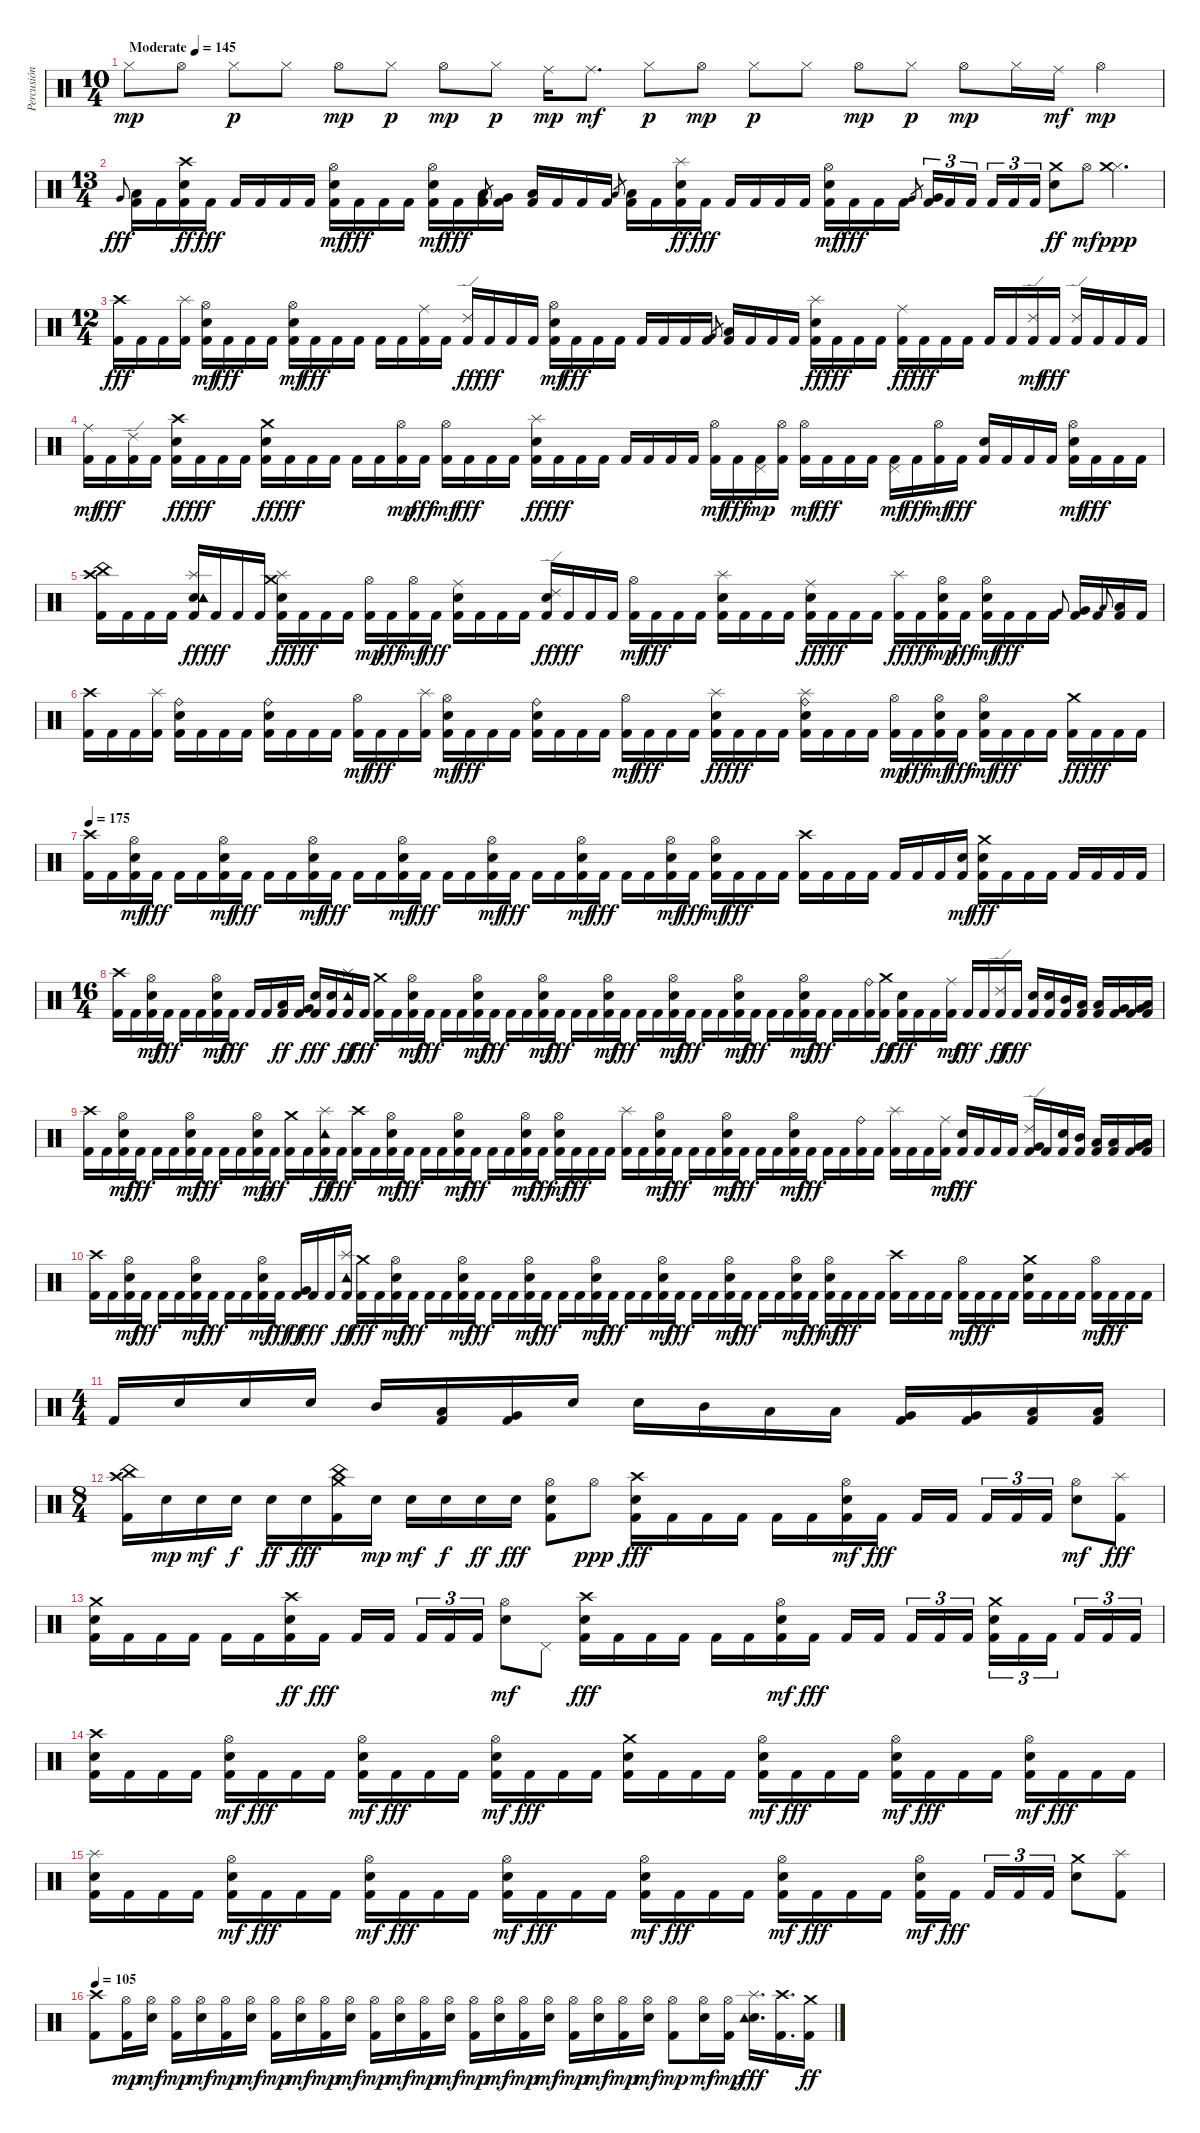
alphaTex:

\track ("Percusión" "Percusión") {instrument percussion}
\staff {score}
\articulation defaults
\ts (10 4)
\tempo (145 "Moderate")
\clef neutral
\ks c "Hi-Hat (closed)".8{dy mp} "Hi-Hat (open)".8 "Hi-Hat (closed)".8{dy p} "Hi-Hat (closed)".8 "Hi-Hat (open)".8{dy mp} "Hi-Hat (closed)".8{dy p} "Hi-Hat (open)".8{dy mp} "Hi-Hat (closed)".8{dy p} "Ride (middle)".16{dy mp} "Ride (middle)".8{d dy mf} "Hi-Hat (closed)".8{dy p} "Hi-Hat (open)".8{dy mp} "Hi-Hat (closed)".8{dy p} "Hi-Hat (closed)".8 "Hi-Hat (open)".8{dy mp} "Hi-Hat (closed)".8{dy p} "Hi-Hat (open)".8{dy mp} "Hi-Hat (closed)".16 "Ride (middle)".16{dy mf} "Hi-Hat (open)".4{dy mp}
|
\ts (13 4)
"Very Low Tom (hit)".8{gr onbeat dy fff} ("Kick (hit) 2" "Low Floor Tom (hit)").16 "Kick (hit) 2".16 ("Kick (hit) 2" "Electric Snare (hit)" "Crash high (hit)").16{dy ff} "Kick (hit) 2".16{dy fff} "Kick (hit) 2".16 "Kick (hit) 2".16 "Kick (hit) 2".16 "Kick (hit) 2".16 ("Kick (hit) 2" "Electric Snare (hit)" "Hi-Hat (open)").16{dy mf} "Kick (hit) 2".16{dy fff} "Kick (hit) 2".16 "Kick (hit) 2".16 ("Kick (hit) 2" "Electric Snare (hit)" "Hi-Hat (open)").16{dy mf} "Kick (hit) 2".16{dy fff} ("Kick (hit) 2" "Low Tom (hit)").16 "Very Low Tom (hit)".8{gr} ("Kick (hit) 2" "Very Low Tom (hit)").16 ("Kick (hit) 2" "Low Floor Tom (hit)").16 "Kick (hit) 2".16 "Kick (hit) 2".16 "Kick (hit) 2".16 "Low Floor Tom (hit)".8{gr} ("Kick (hit) 2" "Low Floor Tom (hit)").16 "Kick (hit) 2".16 ("Kick (hit) 2" "Electric Snare (hit)" "Splash (hit)").16{dy ff} "Kick (hit) 2".16{dy fff} "Kick (hit) 2".16 "Kick (hit) 2".16 "Kick (hit) 2".16 "Kick (hit) 2".16 ("Kick (hit) 2" "Electric Snare (hit)" "Hi-Hat (open)").16{dy mf} "Kick (hit) 2".16{dy fff} "Kick (hit) 2".16 "Kick (hit) 2".16 "Very Low Tom (hit)".8{gr} ("Kick (hit) 2" "Very Low Tom (hit)").16{tu (3 2)} "Kick (hit) 2".16{tu (3 2)} "Kick (hit) 2".16{tu (3 2) beam splitsecondary} "Kick (hit) 2".16{tu (3 2)} "Kick (hit) 2".16{tu (3 2)} "Kick (hit) 2".16{tu (3 2)} ("Electric Snare (hit)" "Crash medium (hit)").8{dy ff} "Hi-Hat (open)".8{dy mf} ("Hi-Hat (closed)" "Crash medium (hit)").2{d dy ppp} |
\ts (12 4)
("Kick (hit) 2" "Crash high (hit)").16{dy fff} "Kick (hit) 2".16 "Kick (hit) 2".16 ("Kick (hit) 2" "Splash (hit)").16 ("Kick (hit) 2" "Electric Snare (hit)" "Hi-Hat (open)").16{dy mf} "Kick (hit) 2".16{dy fff} "Kick (hit) 2".16 "Kick (hit) 2".16 ("Kick (hit) 2" "Electric Snare (hit)" "Hi-Hat (open)").16{dy mf} "Kick (hit) 2".16{dy fff} "Kick (hit) 2".16 "Kick (hit) 2".16 "Kick (hit) 2".16 "Kick (hit) 2".16 ("Kick (hit) 2" "Ride (middle)").16 "Kick (hit) 2".16 ("Kick (hit) 2" "Ride (edge) 2").16{dy ff} "Kick (hit) 2".16{dy fff} "Kick (hit) 2".16 "Kick (hit) 2".16 ("Kick (hit) 2" "Electric Snare (hit)" "Hi-Hat (open)").16{dy mf} "Kick (hit) 2".16{dy fff} "Kick (hit) 2".16 "Kick (hit) 2".16 "Kick (hit) 2".16 "Kick (hit) 2".16 "Kick (hit) 2".16 "Kick (hit) 2".16 "Very Low Tom (hit)".8{gr} ("Kick (hit) 2" "Low Floor Tom (hit)").16 "Kick (hit) 2".16 "Kick (hit) 2".16 "Kick (hit) 2".16 ("Kick (hit) 2" "Electric Snare (hit)" "Splash (hit)").16{dy ff} "Kick (hit) 2".16{dy fff} "Kick (hit) 2".16 "Kick (hit) 2".16 ("Kick (hit) 2" "Ride (middle)").16{dy ff} "Kick (hit) 2".16{dy fff} "Kick (hit) 2".16 "Kick (hit) 2".16 "Kick (hit) 2".16 "Kick (hit) 2".16 ("Kick (hit) 2" "Ride (edge) 2").16{dy mf} "Kick (hit) 2".16{dy fff} ("Kick (hit) 2" "Ride (edge) 2").16 "Kick (hit) 2".16 "Kick (hit) 2".16 "Kick (hit) 2".16 |
("Kick (hit) 2" "Ride (middle)").16{dy mf} "Kick (hit) 2".16{dy fff} ("Kick (hit) 2" "Ride (edge) 2").16 "Kick (hit) 2".16 ("Kick (hit) 2" "Electric Snare (hit)" "Crash high (hit)").16{dy ff} "Kick (hit) 2".16{dy fff} "Kick (hit) 2".16 "Kick (hit) 2".16 ("Kick (hit) 2" "Electric Snare (hit)" "Crash medium (hit)").16{dy ff} "Kick (hit) 2".16{dy fff} "Kick (hit) 2".16 "Kick (hit) 2".16 "Kick (hit) 2".16 "Kick (hit) 2".16 ("Kick (hit) 2" "Hi-Hat (open)").16{dy mp} "Kick (hit) 2".16{dy fff} ("Kick (hit) 2" "Hi-Hat (open)").16{dy mf} "Kick (hit) 2".16{dy fff} "Kick (hit) 2".16 "Kick (hit) 2".16 ("Kick (hit) 2" "Electric Snare (hit)" "Splash (hit)").16{dy ff} "Kick (hit) 2".16{dy fff} "Kick (hit) 2".16 "Kick (hit) 2".16 "Kick (hit) 2".16 "Kick (hit) 2".16 "Kick (hit) 2".16 "Kick (hit) 2".16 ("Kick (hit) 2" "Hi-Hat (open)").16{dy mf} "Kick (hit) 2".16{dy fff} ("Kick (hit) 2" "Pedal Hi-Hat (hit)").16{dy mp} ("Kick (hit) 2" "Hi-Hat (open)").16 ("Kick (hit) 2" "Hi-Hat (open)").16{dy mf} "Kick (hit) 2".16{dy fff} "Kick (hit) 2".16 "Kick (hit) 2".16 ("Kick (hit) 2" "Pedal Hi-Hat (hit)").16{dy mf} "Kick (hit) 2".16{dy fff} ("Kick (hit) 2" "Hi-Hat (open)").16{dy mf} "Kick (hit) 2".16{dy fff} ("Kick (hit) 2" "Electric Snare (hit)").16 "Kick (hit) 2".16 "Kick (hit) 2".16 "Kick (hit) 2".16 ("Kick (hit) 2" "Electric Snare (hit)" "Hi-Hat (open)").16{dy mf} "Kick (hit) 2".16{dy fff} "Kick (hit) 2".16 "Kick (hit) 2".16 |
("Kick (hit) 2" "Crash high (hit)" "China (hit)").16 "Kick (hit) 2".16 "Kick (hit) 2".16 "Kick (hit) 2".16 ("Kick (hit) 2" "Electric Snare (hit)" "Splash (hit)" "Tambourine (hit)").16{dy ff} "Kick (hit) 2".16{dy fff} "Kick (hit) 2".16 "Kick (hit) 2".16 ("Kick (hit) 2" "Electric Snare (hit)" "Crash medium (hit)" "Splash (hit)").16{dy ff} "Kick (hit) 2".16{dy fff} "Kick (hit) 2".16 "Kick (hit) 2".16 ("Kick (hit) 2" "Hi-Hat (open)").16{dy mp} "Kick (hit) 2".16{dy fff} ("Kick (hit) 2" "Hi-Hat (open)").16{dy mf} "Kick (hit) 2".16{dy fff} ("Kick (hit) 2" "Electric Snare (hit)" "Ride (middle)").16 "Kick (hit) 2".16 "Kick (hit) 2".16 "Kick (hit) 2".16 ("Kick (hit) 2" "Electric Snare (hit)" "Ride (edge) 2").16{dy ff} "Kick (hit) 2".16{dy fff} "Kick (hit) 2".16 "Kick (hit) 2".16 ("Kick (hit) 2" "Hi-Hat (open)").16{dy mf} "Kick (hit) 2".16{dy fff} "Kick (hit) 2".16 "Kick (hit) 2".16 ("Kick (hit) 2" "Electric Snare (hit)" "Splash (hit)").16 "Kick (hit) 2".16 "Kick (hit) 2".16 "Kick (hit) 2".16 ("Kick (hit) 2" "Electric Snare (hit)" "Ride (middle)").16{dy ff} "Kick (hit) 2".16{dy fff} "Kick (hit) 2".16 "Kick (hit) 2".16 ("Kick (hit) 2" "Splash (hit)").16{dy ff} "Kick (hit) 2".16{dy fff} ("Kick (hit) 2" "Electric Snare (hit)" "Hi-Hat (open)").16{dy mp} "Kick (hit) 2".16{dy fff} ("Kick (hit) 2" "Electric Snare (hit)" "Hi-Hat (open)").16{dy mf} "Kick (hit) 2".16{dy fff} "Kick (hit) 2".16 "Kick (hit) 2".16 "Very Low Tom (hit)".8{gr onbeat} ("Kick (hit) 2" "Very Low Tom (hit)").16 "Kick (hit) 2".16 "Low Floor Tom (hit)".8{gr onbeat} ("Kick (hit) 2" "Low Floor Tom (hit)").16 "Kick (hit) 2".16 |
("Kick (hit) 2" "Crash high (hit)").16 "Kick (hit) 2".16 "Kick (hit) 2".16 ("Kick (hit) 2" "Splash (hit)").16 ("Kick (hit) 2" "Electric Snare (hit)" "Ride (bell)").16 "Kick (hit) 2".16 "Kick (hit) 2".16 "Kick (hit) 2".16 ("Kick (hit) 2" "Electric Snare (hit)" "Ride (bell)").16 "Kick (hit) 2".16 "Kick (hit) 2".16 "Kick (hit) 2".16 ("Kick (hit) 2" "Hi-Hat (open)").16{dy mf} "Kick (hit) 2".16{dy fff} "Kick (hit) 2".16 ("Kick (hit) 2" "Splash (hit)").16 ("Kick (hit) 2" "Electric Snare (hit)" "Hi-Hat (open)").16{dy mf} "Kick (hit) 2".16{dy fff} "Kick (hit) 2".16 "Kick (hit) 2".16 ("Kick (hit) 2" "Electric Snare (hit)" "Ride (bell)").16 "Kick (hit) 2".16 "Kick (hit) 2".16 "Kick (hit) 2".16 ("Kick (hit) 2" "Hi-Hat (open)").16{dy mf} "Kick (hit) 2".16{dy fff} "Kick (hit) 2".16 "Kick (hit) 2".16 ("Kick (hit) 2" "Electric Snare (hit)" "Splash (hit)").16{dy ff} "Kick (hit) 2".16{dy fff} "Kick (hit) 2".16 "Kick (hit) 2".16 ("Kick (hit) 2" "Electric Snare (hit)" "Splash (hit)" "Ride (bell)").16 "Kick (hit) 2".16 "Kick (hit) 2".16 "Kick (hit) 2".16 ("Kick (hit) 2" "Hi-Hat (open)").16{dy mp} "Kick (hit) 2".16{dy fff} ("Kick (hit) 2" "Electric Snare (hit)" "Hi-Hat (open)").16{dy mf} "Kick (hit) 2".16{dy fff} ("Kick (hit) 2" "Electric Snare (hit)" "Hi-Hat (open)").16{dy mf} "Kick (hit) 2".16{dy fff} "Kick (hit) 2".16 "Kick (hit) 2".16 ("Kick (hit) 2" "Crash medium (hit)").16{dy ff} "Kick (hit) 2".16{dy fff} "Kick (hit) 2".16 "Kick (hit) 2".16 |
\tempo 175
("Kick (hit) 2" "Crash high (hit)").16 "Kick (hit) 2".16 ("Kick (hit) 2" "Electric Snare (hit)" "Hi-Hat (open)").16{dy mf} "Kick (hit) 2".16{dy fff} "Kick (hit) 2".16 "Kick (hit) 2".16 ("Kick (hit) 2" "Electric Snare (hit)" "Hi-Hat (open)").16{dy mf} "Kick (hit) 2".16{dy fff} "Kick (hit) 2".16 "Kick (hit) 2".16 ("Kick (hit) 2" "Electric Snare (hit)" "Hi-Hat (open)").16{dy mf} "Kick (hit) 2".16{dy fff} "Kick (hit) 2".16 "Kick (hit) 2".16 ("Kick (hit) 2" "Electric Snare (hit)" "Hi-Hat (open)").16{dy mf} "Kick (hit) 2".16{dy fff} "Kick (hit) 2".16 "Kick (hit) 2".16 ("Kick (hit) 2" "Electric Snare (hit)" "Hi-Hat (open)").16{dy mf} "Kick (hit) 2".16{dy fff} "Kick (hit) 2".16 "Kick (hit) 2".16 ("Kick (hit) 2" "Electric Snare (hit)" "Hi-Hat (open)").16{dy mf} "Kick (hit) 2".16{dy fff} "Kick (hit) 2".16 "Kick (hit) 2".16 ("Kick (hit) 2" "Electric Snare (hit)" "Hi-Hat (open)").16{dy mf} "Kick (hit) 2".16{dy fff} ("Kick (hit) 2" "Electric Snare (hit)" "Hi-Hat (open)").16{dy mf} "Kick (hit) 2".16{dy fff} "Kick (hit) 2".16 "Kick (hit) 2".16 ("Kick (hit) 2" "Crash high (hit)").16 "Kick (hit) 2".16 "Kick (hit) 2".16 "Kick (hit) 2".16 "Kick (hit) 2".16 "Kick (hit) 2".16 "Kick (hit) 2".16 ("Kick (hit) 2" "Electric Snare (hit)").16{dy mf} ("Kick (hit) 2" "Electric Snare (hit)" "Crash medium (hit)").16{dy fff} "Kick (hit) 2".16 "Kick (hit) 2".16 "Kick (hit) 2".16 "Kick (hit) 2".16 "Kick (hit) 2".16 "Kick (hit) 2".16 "Kick (hit) 2".16 |
\ts (16 4)
("Kick (hit) 2" "Crash high (hit)").16 "Kick (hit) 2".16 ("Kick (hit) 2" "Electric Snare (hit)" "Hi-Hat (open)").16{dy mf} "Kick (hit) 2".16{dy fff} "Kick (hit) 2".16 "Kick (hit) 2".16 ("Kick (hit) 2" "Electric Snare (hit)" "Hi-Hat (open)").16{dy mf} "Kick (hit) 2".16{dy fff} "Kick (hit) 2".16 "Kick (hit) 2".16 ("Kick (hit) 2" "Low Tom (hit)").16{dy ff} ("Kick (hit) 2" "Very Low Tom (hit)").16 ("Kick (hit) 2" "Electric Snare (hit)").16{dy fff} ("Kick (hit) 2" "Electric Snare (hit)").16 ("Kick (hit) 2" "Splash (hit)" "Tambourine (hit)").16{dy ff} "Kick (hit) 2".16{dy fff} ("Kick (hit) 2" "Crash medium (hit)").16 "Kick (hit) 2".16 ("Kick (hit) 2" "Electric Snare (hit)" "Hi-Hat (open)").16{dy mf} "Kick (hit) 2".16{dy fff} "Kick (hit) 2".16 "Kick (hit) 2".16 ("Kick (hit) 2" "Electric Snare (hit)" "Hi-Hat (open)").16{dy mf} "Kick (hit) 2".16{dy fff} "Kick (hit) 2".16 "Kick (hit) 2".16 ("Kick (hit) 2" "Electric Snare (hit)" "Hi-Hat (open)").16{dy mf} "Kick (hit) 2".16{dy fff} "Kick (hit) 2".16 "Kick (hit) 2".16 ("Kick (hit) 2" "Electric Snare (hit)" "Hi-Hat (open)").16{dy mf} "Kick (hit) 2".16{dy fff} "Kick (hit) 2".16 "Kick (hit) 2".16 ("Kick (hit) 2" "Electric Snare (hit)" "Hi-Hat (open)").16{dy mf} "Kick (hit) 2".16{dy fff} "Kick (hit) 2".16 "Kick (hit) 2".16 ("Kick (hit) 2" "Electric Snare (hit)" "Hi-Hat (open)").16{dy mf} "Kick (hit) 2".16{dy fff} "Kick (hit) 2".16 "Kick (hit) 2".16 ("Kick (hit) 2" "Electric Snare (hit)" "Hi-Hat (open)").16{dy mf} "Kick (hit) 2".16{dy fff} "Kick (hit) 2".16 "Kick (hit) 2".16 ("Kick (hit) 2" "Ride (bell)").16 ("Kick (hit) 2" "Crash medium (hit)").16{dy ff} ("Kick (hit) 2" "Electric Snare (hit)").16{dy fff} "Kick (hit) 2".16 "Kick (hit) 2".16 ("Kick (hit) 2" "Ride (middle)").16{dy mf} "Kick (hit) 2".16{dy fff} "Kick (hit) 2".16 ("Kick (hit) 2" "Ride (edge) 2").16{dy ff} "Kick (hit) 2".16{dy fff} ("Kick (hit) 2" "Electric Snare (hit)").16 ("Kick (hit) 2" "Electric Snare (hit)").16 ("Kick (hit) 2" "Mid Tom (hit)").16 ("Kick (hit) 2" "Low Tom (hit)").16 ("Kick (hit) 2" "Low Tom (hit)").16 ("Kick (hit) 2" "Very Low Tom (hit)").16 ("Kick (hit) 2" "Very Low Tom (hit)").16 ("Kick (hit) 2" "Low Floor Tom (hit)").16 |
("Kick (hit) 2" "Crash high (hit)").16 "Kick (hit) 2".16 ("Kick (hit) 2" "Electric Snare (hit)" "Hi-Hat (open)").16{dy mf} "Kick (hit) 2".16{dy fff} "Kick (hit) 2".16 "Kick (hit) 2".16 ("Kick (hit) 2" "Electric Snare (hit)" "Hi-Hat (open)").16{dy mf} "Kick (hit) 2".16{dy fff} "Kick (hit) 2".16 "Kick (hit) 2".16 ("Kick (hit) 2" "Electric Snare (hit)" "Hi-Hat (open)").16{dy mp} "Kick (hit) 2".16{dy fff} ("Kick (hit) 2" "Crash medium (hit)").16 "Kick (hit) 2".16 ("Kick (hit) 2" "Splash (hit)" "Tambourine (hit)").16{dy ff} "Kick (hit) 2".16{dy fff} ("Kick (hit) 2" "Crash high (hit)").16 "Kick (hit) 2".16 ("Kick (hit) 2" "Electric Snare (hit)" "Hi-Hat (open)").16{dy mf} "Kick (hit) 2".16{dy fff} "Kick (hit) 2".16 "Kick (hit) 2".16 ("Kick (hit) 2" "Electric Snare (hit)" "Hi-Hat (open)").16{dy mf} "Kick (hit) 2".16{dy fff} "Kick (hit) 2".16 "Kick (hit) 2".16 ("Kick (hit) 2" "Electric Snare (hit)" "Hi-Hat (open)").16{dy mf} "Kick (hit) 2".16{dy fff} ("Kick (hit) 2" "Electric Snare (hit)" "Hi-Hat (open)").16{dy mf} "Kick (hit) 2".16{dy fff} "Kick (hit) 2".16 "Kick (hit) 2".16 ("Kick (hit) 2" "Splash (hit)").16 "Kick (hit) 2".16 ("Kick (hit) 2" "Electric Snare (hit)" "Hi-Hat (open)").16{dy mf} "Kick (hit) 2".16{dy fff} "Kick (hit) 2".16 "Kick (hit) 2".16 ("Kick (hit) 2" "Electric Snare (hit)" "Hi-Hat (open)").16{dy mf} "Kick (hit) 2".16{dy fff} "Kick (hit) 2".16 "Kick (hit) 2".16 ("Kick (hit) 2" "Electric Snare (hit)" "Hi-Hat (open)").16{dy mf} "Kick (hit) 2".16{dy fff} "Kick (hit) 2".16 "Kick (hit) 2".16 ("Kick (hit) 2" "Ride (bell)").16 "Kick (hit) 2".16 ("Kick (hit) 2" "Splash (hit)").16 "Kick (hit) 2".16 "Kick (hit) 2".16 ("Kick (hit) 2" "Ride (middle)").16{dy mf} ("Kick (hit) 2" "Electric Snare (hit)").16{dy fff} "Kick (hit) 2".16 "Kick (hit) 2".16 "Kick (hit) 2".16 ("Kick (hit) 2" "Very Low Tom (hit)" "Ride (edge) 2").16 "Kick (hit) 2".16 ("Kick (hit) 2" "Electric Snare (hit)").16 ("Kick (hit) 2" "Mid Tom (hit)").16 ("Kick (hit) 2" "Low Tom (hit)").16 ("Kick (hit) 2" "Low Tom (hit)").16 ("Kick (hit) 2" "Very Low Tom (hit)").16 ("Kick (hit) 2" "Low Floor Tom (hit)").16 |
("Kick (hit) 2" "Crash high (hit)").16 "Kick (hit) 2".16 ("Kick (hit) 2" "Electric Snare (hit)" "Hi-Hat (open)").16{dy mf} "Kick (hit) 2".16{dy fff} "Kick (hit) 2".16 "Kick (hit) 2".16 ("Kick (hit) 2" "Electric Snare (hit)" "Hi-Hat (open)").16{dy mf} "Kick (hit) 2".16{dy fff} "Kick (hit) 2".16 "Kick (hit) 2".16 ("Kick (hit) 2" "Electric Snare (hit)" "Hi-Hat (open)").16{dy mf} "Kick (hit) 2".16{dy fff} ("Kick (hit) 2" "Very Low Tom (hit)").16{dy ff} "Kick (hit) 2".16{dy fff} "Kick (hit) 2".16 ("Kick (hit) 2" "Splash (hit)" "Tambourine (hit)").16{dy ff} ("Kick (hit) 2" "Crash medium (hit)").16{dy fff} "Kick (hit) 2".16 ("Kick (hit) 2" "Electric Snare (hit)" "Hi-Hat (open)").16{dy mf} "Kick (hit) 2".16{dy fff} "Kick (hit) 2".16 "Kick (hit) 2".16 ("Kick (hit) 2" "Electric Snare (hit)" "Hi-Hat (open)").16{dy mf} "Kick (hit) 2".16{dy fff} "Kick (hit) 2".16 "Kick (hit) 2".16 ("Kick (hit) 2" "Electric Snare (hit)" "Hi-Hat (open)").16{dy mf} "Kick (hit) 2".16{dy fff} "Kick (hit) 2".16 "Kick (hit) 2".16 ("Kick (hit) 2" "Electric Snare (hit)" "Hi-Hat (open)").16{dy mf} "Kick (hit) 2".16{dy fff} "Kick (hit) 2".16 "Kick (hit) 2".16 ("Kick (hit) 2" "Electric Snare (hit)" "Hi-Hat (open)").16{dy mf} "Kick (hit) 2".16{dy fff} "Kick (hit) 2".16 "Kick (hit) 2".16 ("Kick (hit) 2" "Electric Snare (hit)" "Hi-Hat (open)").16{dy mf} "Kick (hit) 2".16{dy fff} "Kick (hit) 2".16 "Kick (hit) 2".16 ("Kick (hit) 2" "Electric Snare (hit)" "Hi-Hat (open)").16{dy mf} "Kick (hit) 2".16{dy fff} ("Kick (hit) 2" "Electric Snare (hit)" "Hi-Hat (open)").16{dy mf} "Kick (hit) 2".16{dy fff} "Kick (hit) 2".16 "Kick (hit) 2".16 ("Kick (hit) 2" "Crash high (hit)").16 "Kick (hit) 2".16 "Kick (hit) 2".16 "Kick (hit) 2".16 ("Kick (hit) 2" "Hi-Hat (open)").16{dy mf} "Kick (hit) 2".16{dy fff} "Kick (hit) 2".16 "Kick (hit) 2".16 ("Kick (hit) 2" "Electric Snare (hit)" "Crash medium (hit)").16 "Kick (hit) 2".16 "Kick (hit) 2".16 "Kick (hit) 2".16 ("Kick (hit) 2" "Hi-Hat (open)").16{dy mf} "Kick (hit) 2".16{dy fff} "Kick (hit) 2".16 "Kick (hit) 2".16 |
\ts (4 4)
"Kick (hit) 2".16 "Electric Snare (hit)".16 "Electric Snare (hit)".16 "Electric Snare (hit)".16 "Mid Tom (hit)".16 ("Kick (hit) 2" "Low Tom (hit)").16 ("Kick (hit) 2" "Very Low Tom (hit)").16 "Electric Snare (hit)".16 "Electric Snare (hit)".16 "Mid Tom (hit)".16 "Low Tom (hit)".16 "Low Tom (hit)".16 ("Kick (hit) 2" "Very Low Tom (hit)").16 ("Kick (hit) 2" "Very Low Tom (hit)").16 ("Kick (hit) 2" "Low Floor Tom (hit)").16 ("Kick (hit) 2" "Low Floor Tom (hit)").16 |
\ts (8 4)
("Kick (hit) 2" "Crash high (hit)" "China (hit)").16 "Electric Snare (hit)".16{dy mp} "Electric Snare (hit)".16{dy mf} "Electric Snare (hit)".16{dy f} "Electric Snare (hit)".16{dy ff} "Electric Snare (hit)".16{dy fff} ("Kick (hit) 2" "Crash medium (hit)" "China (hit)").16 "Electric Snare (hit)".16{dy mp} "Electric Snare (hit)".16{dy mf} "Electric Snare (hit)".16{dy f} "Electric Snare (hit)".16{dy ff} "Electric Snare (hit)".16{dy fff} ("Kick (hit) 2" "Electric Snare (hit)" "Hi-Hat (open)").8 "Hi-Hat (open)".8{dy ppp} ("Kick (hit) 2" "Electric Snare (hit)" "Crash high (hit)").16{dy fff} "Kick (hit) 2".16 "Kick (hit) 2".16 "Kick (hit) 2".16 "Kick (hit) 2".16 "Kick (hit) 2".16 ("Kick (hit) 2" "Electric Snare (hit)" "Hi-Hat (open)").16{dy mf} "Kick (hit) 2".16{dy fff} "Kick (hit) 2".16 "Kick (hit) 2".16{beam splitsecondary} "Kick (hit) 2".16{tu (3 2)} "Kick (hit) 2".16{tu (3 2)} "Kick (hit) 2".16{tu (3 2)} ("Electric Snare (hit)" "Hi-Hat (open)").8{dy mf} ("Kick (hit) 2" "Splash (hit)").8{dy fff} |
("Kick (hit) 2" "Electric Snare (hit)" "Crash medium (hit)").16 "Kick (hit) 2".16 "Kick (hit) 2".16 "Kick (hit) 2".16 "Kick (hit) 2".16 "Kick (hit) 2".16 ("Kick (hit) 2" "Electric Snare (hit)" "Crash high (hit)").16{dy ff} "Kick (hit) 2".16{dy fff} "Kick (hit) 2".16 "Kick (hit) 2".16{beam splitsecondary} "Kick (hit) 2".16{tu (3 2)} "Kick (hit) 2".16{tu (3 2)} "Kick (hit) 2".16{tu (3 2)} ("Electric Snare (hit)" "Hi-Hat (open)").8{dy mf} "Pedal Hi-Hat (hit)".8 ("Kick (hit) 2" "Electric Snare (hit)" "Crash high (hit)").16{dy fff} "Kick (hit) 2".16 "Kick (hit) 2".16 "Kick (hit) 2".16 "Kick (hit) 2".16 "Kick (hit) 2".16 ("Kick (hit) 2" "Electric Snare (hit)" "Hi-Hat (open)").16{dy mf} "Kick (hit) 2".16{dy fff} "Kick (hit) 2".16 "Kick (hit) 2".16{beam splitsecondary} "Kick (hit) 2".16{tu (3 2)} "Kick (hit) 2".16{tu (3 2)} "Kick (hit) 2".16{tu (3 2)} ("Kick (hit) 2" "Electric Snare (hit)" "Crash medium (hit)").16{tu (3 2)} "Kick (hit) 2".16{tu (3 2)} "Kick (hit) 2".16{tu (3 2) beam splitsecondary} "Kick (hit) 2".16{tu (3 2)} "Kick (hit) 2".16{tu (3 2)} "Kick (hit) 2".16{tu (3 2)} |
("Kick (hit) 2" "Electric Snare (hit)" "Crash high (hit)").16 "Kick (hit) 2".16 "Kick (hit) 2".16 "Kick (hit) 2".16 ("Kick (hit) 2" "Electric Snare (hit)" "Hi-Hat (open)").16{dy mf} "Kick (hit) 2".16{dy fff} "Kick (hit) 2".16 "Kick (hit) 2".16 ("Kick (hit) 2" "Electric Snare (hit)" "Hi-Hat (open)").16{dy mf} "Kick (hit) 2".16{dy fff} "Kick (hit) 2".16 "Kick (hit) 2".16 ("Kick (hit) 2" "Electric Snare (hit)" "Hi-Hat (open)").16{dy mf} "Kick (hit) 2".16{dy fff} "Kick (hit) 2".16 "Kick (hit) 2".16 ("Kick (hit) 2" "Electric Snare (hit)" "Crash medium (hit)").16 "Kick (hit) 2".16 "Kick (hit) 2".16 "Kick (hit) 2".16 ("Kick (hit) 2" "Electric Snare (hit)" "Hi-Hat (open)").16{dy mf} "Kick (hit) 2".16{dy fff} "Kick (hit) 2".16 "Kick (hit) 2".16 ("Kick (hit) 2" "Electric Snare (hit)" "Hi-Hat (open)").16{dy mf} "Kick (hit) 2".16{dy fff} "Kick (hit) 2".16 "Kick (hit) 2".16 ("Kick (hit) 2" "Electric Snare (hit)" "Hi-Hat (open)").16{dy mf} "Kick (hit) 2".16{dy fff} "Kick (hit) 2".16 "Kick (hit) 2".16 |
("Kick (hit) 2" "Electric Snare (hit)" "Splash (hit)").16 "Kick (hit) 2".16 "Kick (hit) 2".16 "Kick (hit) 2".16 ("Kick (hit) 2" "Electric Snare (hit)" "Hi-Hat (open)").16{dy mf} "Kick (hit) 2".16{dy fff} "Kick (hit) 2".16 "Kick (hit) 2".16 ("Kick (hit) 2" "Electric Snare (hit)" "Hi-Hat (open)").16{dy mf} "Kick (hit) 2".16{dy fff} "Kick (hit) 2".16 "Kick (hit) 2".16 ("Kick (hit) 2" "Electric Snare (hit)" "Hi-Hat (open)").16{dy mf} "Kick (hit) 2".16{dy fff} "Kick (hit) 2".16 "Kick (hit) 2".16 ("Kick (hit) 2" "Electric Snare (hit)" "Hi-Hat (open)").16{dy mf} "Kick (hit) 2".16{dy fff} "Kick (hit) 2".16 "Kick (hit) 2".16 ("Kick (hit) 2" "Electric Snare (hit)" "Hi-Hat (open)").16{dy mf} "Kick (hit) 2".16{dy fff} "Kick (hit) 2".16 "Kick (hit) 2".16 ("Kick (hit) 2" "Electric Snare (hit)" "Hi-Hat (open)").16{dy mf} "Kick (hit) 2".16{dy fff beam splitsecondary} "Kick (hit) 2".16{tu (3 2)} "Kick (hit) 2".16{tu (3 2)} "Kick (hit) 2".16{tu (3 2)} ("Electric Snare (hit)" "Crash medium (hit)").8 ("Kick (hit) 2" "Splash (hit)").8 |
\tempo 105
("Kick (hit) 2" "Crash high (hit)").8 ("Kick (hit) 2" "Hi-Hat (open)").16{dy mp} ("Electric Snare (hit)" "Hi-Hat (open)").16{dy mf} ("Kick (hit) 2" "Hi-Hat (open)").16{dy mp} ("Electric Snare (hit)" "Hi-Hat (open)").16{dy mf} ("Kick (hit) 2" "Hi-Hat (open)").16{dy mp} ("Electric Snare (hit)" "Hi-Hat (open)").16{dy mf} ("Kick (hit) 2" "Hi-Hat (open)").16{dy mp} ("Electric Snare (hit)" "Hi-Hat (open)").16{dy mf} ("Kick (hit) 2" "Hi-Hat (open)").16{dy mp} ("Electric Snare (hit)" "Hi-Hat (open)").16{dy mf} ("Kick (hit) 2" "Hi-Hat (open)").16{dy mp} ("Electric Snare (hit)" "Hi-Hat (open)").16{dy mf} ("Kick (hit) 2" "Hi-Hat (open)").16{dy mp} ("Electric Snare (hit)" "Hi-Hat (open)").16{dy mf} ("Kick (hit) 2" "Hi-Hat (open)").16{dy mp} ("Electric Snare (hit)" "Hi-Hat (open)").16{dy mf} ("Kick (hit) 2" "Hi-Hat (open)").16{dy mp} ("Electric Snare (hit)" "Hi-Hat (open)").16{dy mf} ("Kick (hit) 2" "Hi-Hat (open)").16{dy mp} ("Electric Snare (hit)" "Hi-Hat (open)").16{dy mf} ("Kick (hit) 2" "Hi-Hat (open)").16{dy mp} ("Electric Snare (hit)" "Hi-Hat (open)").16{dy mf} ("Kick (hit) 2" "Hi-Hat (open)").8{dy mp} ("Electric Snare (hit)" "Hi-Hat (open)").16{dy mf} ("Kick (hit) 2" "Hi-Hat (open)").16{dy mp} ("Electric Snare (hit)" "Splash (hit)" "Tambourine (hit)").16{d dy fff} ("Kick (hit) 2" "Crash high (hit)").16{d} ("Kick (hit) 2" "Crash medium (hit)").16{dy ff}
